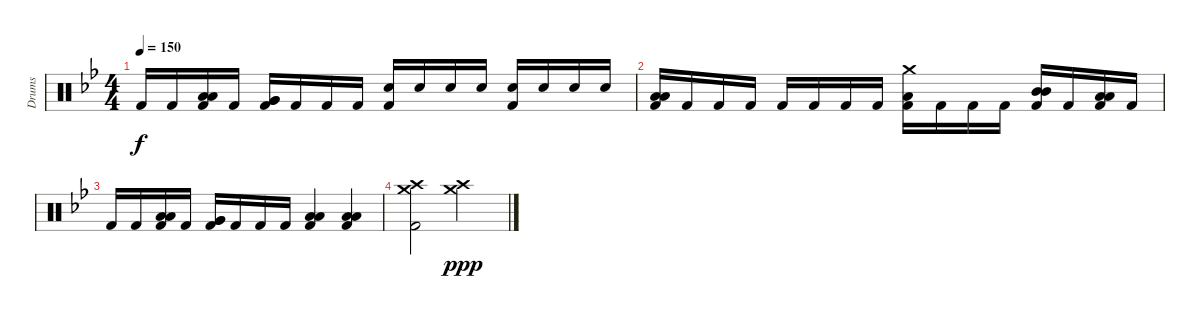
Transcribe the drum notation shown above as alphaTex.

\track ("Drums" "Drums") {instrument percussion}
\staff {score}
\articulation defaults
\ts (4 4)
\tempo 150
\clef neutral
\ks gminor "Kick (hit) 2".16{dy f} "Kick (hit) 2".16
("Kick (hit) 2" "Low Tom (hit)" "Low Tom (hit)").16 "Kick (hit) 2".16 ("Kick (hit) 2" "Very Low Tom (hit)" "Very Low Tom (hit)").16 "Kick (hit) 2".16 "Kick (hit) 2".16 "Kick (hit) 2".16 ("Kick (hit) 2" "Snare (hit) 2").16 "Snare (hit) 2".16 "Snare (hit) 2".16 "Snare (hit) 2".16 ("Kick (hit) 2" "Snare (hit) 2").16 "Snare (hit) 2".16 "Snare (hit) 2".16 "Snare (hit) 2".16 |
("Kick (hit) 2" "Low Floor Tom (hit)" "Low Floor Tom (hit)").16 "Kick (hit) 2".16 "Kick (hit) 2".16 "Kick (hit) 2".16 "Kick (hit) 2".16 "Kick (hit) 2".16 "Kick (hit) 2".16 "Kick (hit) 2".16 ("Kick (hit) 2" "Low Floor Tom (hit)" "Crash medium (hit)").16 "Kick (hit) 2".16 "Kick (hit) 2".16 "Kick (hit) 2".16 ("Kick (hit) 2" "Mid Tom (hit)" "Mid Tom (hit)").16 "Kick (hit) 2".16 ("Kick (hit) 2" "Low Tom (hit)" "Low Tom (hit)").16 "Kick (hit) 2".16 |
"Kick (hit) 2".16 "Kick (hit) 2".16 ("Kick (hit) 2" "Low Tom (hit)" "Low Tom (hit)").16 "Kick (hit) 2".16 ("Kick (hit) 2" "Very Low Tom (hit)" "Very Low Tom (hit)").16 "Kick (hit) 2".16 "Kick (hit) 2".16 "Kick (hit) 2".16 ("Kick (hit) 2" "Low Floor Tom (hit)" "Low Floor Tom (hit)").4 ("Kick (hit) 2" "Low Floor Tom (hit)" "Low Floor Tom (hit)").4 |
("Kick (hit) 2" "Crash high (hit)" "Crash medium (hit)").2 ("Crash high (hit)" "Crash medium (hit)").2{dy ppp}
